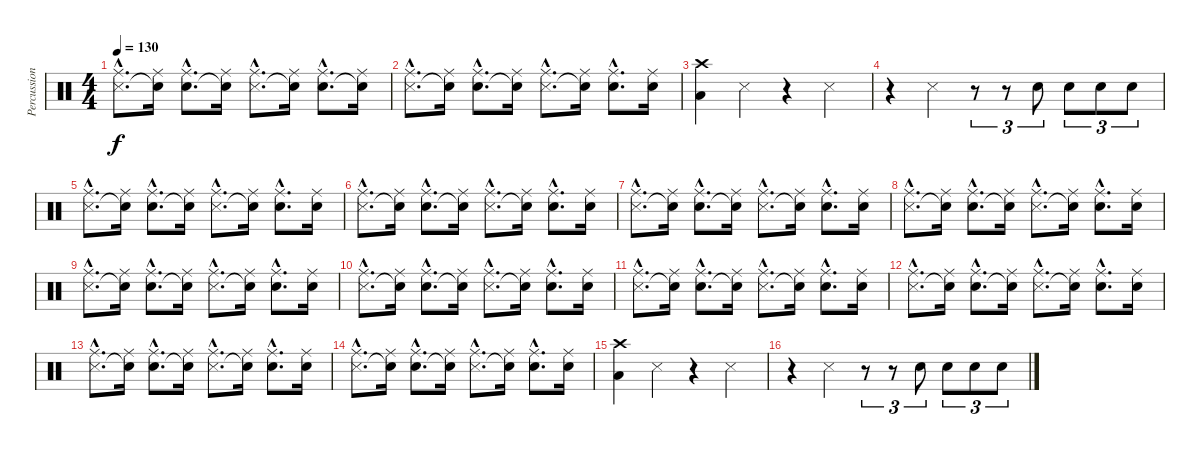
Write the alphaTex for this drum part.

\track ("Percussion" "Percussion") {instrument percussion}
\staff {score}
\articulation defaults
\ts (4 4)
\tempo 130
\clef neutral
\ks c
("Ride (middle)"{hac} "Snare (side stick) 3"{hac}).8{d dy f} ("Ride (middle)" "Snare (hit)"{t}).16 ("Ride (middle)"{hac} "Electric Snare (hit)"{hac}).8{d} ("Ride (middle)" "Snare (hit)"{t}).16 ("Ride (middle)"{hac} "Snare (side stick) 3"{hac}).8{d} ("Ride (middle)" "Snare (hit)"{t}).16 ("Ride (middle)"{hac} "Electric Snare (hit)"{hac}).8{d} ("Ride (middle)" "Electric Snare (hit)"{t}).16 |
("Ride (middle)"{hac} "Snare (side stick) 3"{hac}).8{d} ("Ride (middle)" "Snare (hit)"{t}).16 ("Ride (middle)"{hac} "Electric Snare (hit)"{hac}).8{d} ("Ride (middle)" "Snare (hit)"{t}).16 ("Ride (middle)"{hac} "Snare (side stick) 3"{hac}).8{d} ("Ride (middle)" "Snare (hit)"{t}).16 ("Ride (middle)"{hac} "Electric Snare (hit)"{hac}).8{d} ("Ride (middle)" "Electric Snare (hit)").16 |
("Crash high (hit)" "Low Tom (hit)").4 "Snare (side stick) 3".4 r.4 "Snare (side stick) 3".4 |
r.4 "Snare (side stick) 3".4 r.8{tu (3 2)} r.8{tu (3 2)} "Snare (hit) 2".8{tu (3 2)} "Electric Snare (hit)".8{tu (3 2)} "Electric Snare (hit)".8{tu (3 2)} "Electric Snare (hit)".8{tu (3 2)} |
("Ride (middle)"{hac} "Snare (side stick) 3"{hac}).8{d} ("Ride (middle)" "Snare (hit)"{t}).16 ("Ride (middle)"{hac} "Electric Snare (hit)"{hac}).8{d} ("Ride (middle)" "Snare (hit)"{t}).16 ("Ride (middle)"{hac} "Snare (side stick) 3"{hac}).8{d} ("Ride (middle)" "Snare (hit)"{t}).16 ("Ride (middle)"{hac} "Electric Snare (hit)"{hac}).8{d} ("Ride (middle)" "Electric Snare (hit)").16 |
("Ride (middle)"{hac} "Snare (side stick) 3"{hac}).8{d} ("Ride (middle)" "Snare (hit)"{t}).16 ("Ride (middle)"{hac} "Electric Snare (hit)"{hac}).8{d} ("Ride (middle)" "Snare (hit)"{t}).16 ("Ride (middle)"{hac} "Snare (side stick) 3"{hac}).8{d} ("Ride (middle)" "Snare (hit)"{t}).16 ("Ride (middle)"{hac} "Electric Snare (hit)"{hac}).8{d} ("Ride (middle)" "Electric Snare (hit)").16 |
("Ride (middle)"{hac} "Snare (side stick) 3"{hac}).8{d} ("Ride (middle)" "Snare (hit)"{t}).16 ("Ride (middle)"{hac} "Electric Snare (hit)"{hac}).8{d} ("Ride (middle)" "Snare (hit)"{t}).16 ("Ride (middle)"{hac} "Snare (side stick) 3"{hac}).8{d} ("Ride (middle)" "Snare (hit)"{t}).16 ("Ride (middle)"{hac} "Electric Snare (hit)"{hac}).8{d} ("Ride (middle)" "Electric Snare (hit)").16 |
("Ride (middle)"{hac} "Snare (side stick) 3"{hac}).8{d} ("Ride (middle)" "Snare (hit)"{t}).16 ("Ride (middle)"{hac} "Electric Snare (hit)"{hac}).8{d} ("Ride (middle)" "Snare (hit)"{t}).16 ("Ride (middle)"{hac} "Snare (side stick) 3"{hac}).8{d} ("Ride (middle)" "Snare (hit)"{t}).16 ("Ride (middle)"{hac} "Electric Snare (hit)"{hac}).8{d} ("Ride (middle)" "Electric Snare (hit)").16 |
("Ride (middle)"{hac} "Snare (side stick) 3"{hac}).8{d} ("Ride (middle)" "Snare (hit)"{t}).16 ("Ride (middle)"{hac} "Electric Snare (hit)"{hac}).8{d} ("Ride (middle)" "Snare (hit)"{t}).16 ("Ride (middle)"{hac} "Snare (side stick) 3"{hac}).8{d} ("Ride (middle)" "Snare (hit)"{t}).16 ("Ride (middle)"{hac} "Electric Snare (hit)"{hac}).8{d} ("Ride (middle)" "Electric Snare (hit)").16 |
("Ride (middle)"{hac} "Snare (side stick) 3"{hac}).8{d} ("Ride (middle)" "Snare (hit)"{t}).16 ("Ride (middle)"{hac} "Electric Snare (hit)"{hac}).8{d} ("Ride (middle)" "Snare (hit)"{t}).16 ("Ride (middle)"{hac} "Snare (side stick) 3"{hac}).8{d} ("Ride (middle)" "Snare (hit)"{t}).16 ("Ride (middle)"{hac} "Electric Snare (hit)"{hac}).8{d} ("Ride (middle)" "Electric Snare (hit)").16 |
("Ride (middle)"{hac} "Snare (side stick) 3"{hac}).8{d} ("Ride (middle)" "Snare (hit)"{t}).16 ("Ride (middle)"{hac} "Electric Snare (hit)"{hac}).8{d} ("Ride (middle)" "Snare (hit)"{t}).16 ("Ride (middle)"{hac} "Snare (side stick) 3"{hac}).8{d} ("Ride (middle)" "Snare (hit)"{t}).16 ("Ride (middle)"{hac} "Electric Snare (hit)"{hac}).8{d} ("Ride (middle)" "Electric Snare (hit)").16 |
("Ride (middle)"{hac} "Snare (side stick) 3"{hac}).8{d} ("Ride (middle)" "Snare (hit)"{t}).16 ("Ride (middle)"{hac} "Electric Snare (hit)"{hac}).8{d} ("Ride (middle)" "Snare (hit)"{t}).16 ("Ride (middle)"{hac} "Snare (side stick) 3"{hac}).8{d} ("Ride (middle)" "Snare (hit)"{t}).16 ("Ride (middle)"{hac} "Electric Snare (hit)"{hac}).8{d} ("Ride (middle)" "Electric Snare (hit)").16 |
("Ride (middle)"{hac} "Snare (side stick) 3"{hac}).8{d} ("Ride (middle)" "Snare (hit)"{t}).16 ("Ride (middle)"{hac} "Electric Snare (hit)"{hac}).8{d} ("Ride (middle)" "Snare (hit)"{t}).16 ("Ride (middle)"{hac} "Snare (side stick) 3"{hac}).8{d} ("Ride (middle)" "Snare (hit)"{t}).16 ("Ride (middle)"{hac} "Electric Snare (hit)"{hac}).8{d} ("Ride (middle)" "Electric Snare (hit)").16 |
("Ride (middle)"{hac} "Snare (side stick) 3"{hac}).8{d} ("Ride (middle)" "Snare (hit)"{t}).16 ("Ride (middle)"{hac} "Electric Snare (hit)"{hac}).8{d} ("Ride (middle)" "Snare (hit)"{t}).16 ("Ride (middle)"{hac} "Snare (side stick) 3"{hac}).8{d} ("Ride (middle)" "Snare (hit)"{t}).16 ("Ride (middle)"{hac} "Electric Snare (hit)"{hac}).8{d} ("Ride (middle)" "Electric Snare (hit)").16 |
("Crash high (hit)" "Low Tom (hit)").4 "Snare (side stick) 3".4 r.4 "Snare (side stick) 3".4 |
r.4 "Snare (side stick) 3".4 r.8{tu (3 2)} r.8{tu (3 2)} "Snare (hit) 2".8{tu (3 2)} "Electric Snare (hit)".8{tu (3 2)} "Electric Snare (hit)".8{tu (3 2)} "Electric Snare (hit)".8{tu (3 2)}
